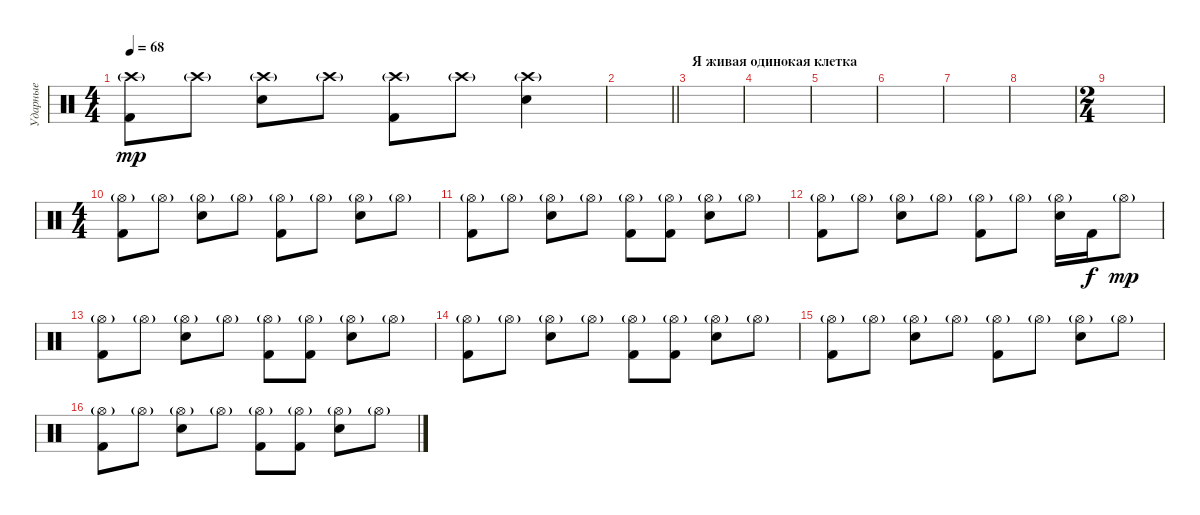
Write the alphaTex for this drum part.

\track ("Ударные" "Ударные") {instrument percussion}
\staff {score}
\articulation defaults
\ts (4 4)
\tempo 68
\clef neutral
\ks c
("Crash high (hit)"{g} "Kick (hit) 2").8{dy mp} "Crash high (hit)"{g}.8 ("Crash high (hit)"{g} "Snare (hit) 2").8 "Crash high (hit)"{g}.8 ("Crash high (hit)"{g} "Kick (hit) 2").8 "Crash high (hit)"{g}.8 ("Crash high (hit)"{g} "Snare (hit) 2").4 |
\barLineRight lightlight
|
\section ("" "Я живая одинокая клетка")
|
|
|
|
|
|
\ts (2 4)
|
\ts (4 4)
("Hi-Hat (open)"{g} "Kick (hit) 2").8 "Hi-Hat (open)"{g}.8 ("Hi-Hat (open)"{g} "Snare (hit) 2").8 "Hi-Hat (open)"{g}.8 ("Hi-Hat (open)"{g} "Kick (hit) 2").8 "Hi-Hat (open)"{g}.8 ("Hi-Hat (open)"{g} "Snare (hit) 2").8 "Hi-Hat (open)"{g}.8 |
("Hi-Hat (open)"{g} "Kick (hit) 2").8 "Hi-Hat (open)"{g}.8 ("Hi-Hat (open)"{g} "Snare (hit) 2").8 "Hi-Hat (open)"{g}.8 ("Hi-Hat (open)"{g} "Kick (hit) 2").8 ("Hi-Hat (open)"{g} "Kick (hit) 2").8 ("Hi-Hat (open)"{g} "Snare (hit) 2").8 "Hi-Hat (open)"{g}.8 |
("Hi-Hat (open)"{g} "Kick (hit) 2").8 "Hi-Hat (open)"{g}.8 ("Hi-Hat (open)"{g} "Snare (hit) 2").8 "Hi-Hat (open)"{g}.8 ("Hi-Hat (open)"{g} "Kick (hit) 2").8 "Hi-Hat (open)"{g}.8 ("Hi-Hat (open)"{g} "Snare (hit) 2").16 "Kick (hit) 2".16{dy f} "Hi-Hat (open)"{g}.8{dy mp} |
("Hi-Hat (open)"{g} "Kick (hit) 2").8 "Hi-Hat (open)"{g}.8 ("Hi-Hat (open)"{g} "Snare (hit) 2").8 "Hi-Hat (open)"{g}.8 ("Hi-Hat (open)"{g} "Kick (hit) 2").8 ("Hi-Hat (open)"{g} "Kick (hit) 2").8 ("Hi-Hat (open)"{g} "Snare (hit) 2").8 "Hi-Hat (open)"{g}.8 |
("Hi-Hat (open)"{g} "Kick (hit) 2").8 "Hi-Hat (open)"{g}.8 ("Hi-Hat (open)"{g} "Snare (hit) 2").8 "Hi-Hat (open)"{g}.8 ("Hi-Hat (open)"{g} "Kick (hit) 2").8 ("Hi-Hat (open)"{g} "Kick (hit) 2").8 ("Hi-Hat (open)"{g} "Snare (hit) 2").8 "Hi-Hat (open)"{g}.8 |
("Hi-Hat (open)"{g} "Kick (hit) 2").8 "Hi-Hat (open)"{g}.8 ("Hi-Hat (open)"{g} "Snare (hit) 2").8 "Hi-Hat (open)"{g}.8 ("Hi-Hat (open)"{g} "Kick (hit) 2").8 "Hi-Hat (open)"{g}.8 ("Hi-Hat (open)"{g} "Snare (hit) 2").8 "Hi-Hat (open)"{g}.8 |
("Hi-Hat (open)"{g} "Kick (hit) 2").8 "Hi-Hat (open)"{g}.8 ("Hi-Hat (open)"{g} "Snare (hit) 2").8 "Hi-Hat (open)"{g}.8 ("Hi-Hat (open)"{g} "Kick (hit) 2").8 ("Hi-Hat (open)"{g} "Kick (hit) 2").8 ("Hi-Hat (open)"{g} "Snare (hit) 2").8 "Hi-Hat (open)"{g}.8
